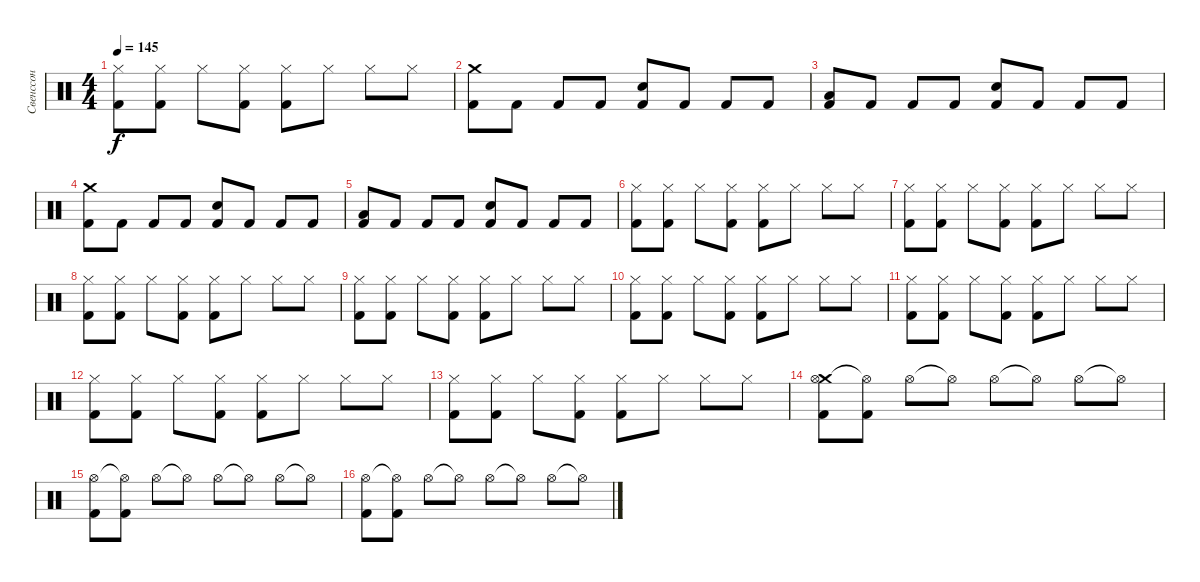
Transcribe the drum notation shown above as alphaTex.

\track ("Свенссон" "Свенссон") {instrument percussion}
\staff {score}
\articulation defaults
\ts (4 4)
\tempo 145
\clef neutral
\ks c
("Hi-Hat (closed)" "Kick (hit) 2").8{dy f} ("Hi-Hat (closed)" "Kick (hit) 2").8 "Hi-Hat (closed)".8 ("Hi-Hat (closed)" "Kick (hit) 2").8 ("Hi-Hat (closed)" "Kick (hit) 2").8 "Hi-Hat (closed)".8 "Hi-Hat (closed)".8 "Hi-Hat (closed)".8 |
("Crash medium (hit)" "Kick (hit) 2").8 "Kick (hit) 2".8 "Kick (hit) 2".8 "Kick (hit) 2".8 ("Snare (hit) 2" "Kick (hit) 2").8 "Kick (hit) 2".8 "Kick (hit) 2".8 "Kick (hit) 2".8 |
("Low Floor Tom (hit)" "Kick (hit) 2").8 "Kick (hit) 2".8 "Kick (hit) 2".8 "Kick (hit) 2".8 ("Snare (hit) 2" "Kick (hit) 2").8 "Kick (hit) 2".8 "Kick (hit) 2".8 "Kick (hit) 2".8 |
("Crash medium (hit)" "Kick (hit) 2").8 "Kick (hit) 2".8 "Kick (hit) 2".8 "Kick (hit) 2".8 ("Snare (hit) 2" "Kick (hit) 2").8 "Kick (hit) 2".8 "Kick (hit) 2".8 "Kick (hit) 2".8 |
("Low Floor Tom (hit)" "Kick (hit) 2").8 "Kick (hit) 2".8 "Kick (hit) 2".8 "Kick (hit) 2".8 ("Snare (hit) 2" "Kick (hit) 2").8 "Kick (hit) 2".8 "Kick (hit) 2".8 "Kick (hit) 2".8 |
("Hi-Hat (closed)" "Kick (hit) 2").8 ("Hi-Hat (closed)" "Kick (hit) 2").8 "Hi-Hat (closed)".8 ("Hi-Hat (closed)" "Kick (hit) 2").8 ("Hi-Hat (closed)" "Kick (hit) 2").8 "Hi-Hat (closed)".8 "Hi-Hat (closed)".8 "Hi-Hat (closed)".8 |
("Hi-Hat (closed)" "Kick (hit) 2").8 ("Hi-Hat (closed)" "Kick (hit) 2").8 "Hi-Hat (closed)".8 ("Hi-Hat (closed)" "Kick (hit) 2").8 ("Hi-Hat (closed)" "Kick (hit) 2").8 "Hi-Hat (closed)".8 "Hi-Hat (closed)".8 "Hi-Hat (closed)".8 |
("Hi-Hat (closed)" "Kick (hit) 2").8 ("Hi-Hat (closed)" "Kick (hit) 2").8 "Hi-Hat (closed)".8 ("Hi-Hat (closed)" "Kick (hit) 2").8 ("Hi-Hat (closed)" "Kick (hit) 2").8 "Hi-Hat (closed)".8 "Hi-Hat (closed)".8 "Hi-Hat (closed)".8 |
("Hi-Hat (closed)" "Kick (hit) 2").8 ("Hi-Hat (closed)" "Kick (hit) 2").8 "Hi-Hat (closed)".8 ("Hi-Hat (closed)" "Kick (hit) 2").8 ("Hi-Hat (closed)" "Kick (hit) 2").8 "Hi-Hat (closed)".8 "Hi-Hat (closed)".8 "Hi-Hat (closed)".8 |
("Hi-Hat (closed)" "Kick (hit) 2").8 ("Hi-Hat (closed)" "Kick (hit) 2").8 "Hi-Hat (closed)".8 ("Hi-Hat (closed)" "Kick (hit) 2").8 ("Hi-Hat (closed)" "Kick (hit) 2").8 "Hi-Hat (closed)".8 "Hi-Hat (closed)".8 "Hi-Hat (closed)".8 |
("Hi-Hat (closed)" "Kick (hit) 2").8 ("Hi-Hat (closed)" "Kick (hit) 2").8 "Hi-Hat (closed)".8 ("Hi-Hat (closed)" "Kick (hit) 2").8 ("Hi-Hat (closed)" "Kick (hit) 2").8 "Hi-Hat (closed)".8 "Hi-Hat (closed)".8 "Hi-Hat (closed)".8 |
("Hi-Hat (closed)" "Kick (hit) 2").8 ("Hi-Hat (closed)" "Kick (hit) 2").8 "Hi-Hat (closed)".8 ("Hi-Hat (closed)" "Kick (hit) 2").8 ("Hi-Hat (closed)" "Kick (hit) 2").8 "Hi-Hat (closed)".8 "Hi-Hat (closed)".8 "Hi-Hat (closed)".8 |
("Hi-Hat (closed)" "Kick (hit) 2").8 ("Hi-Hat (closed)" "Kick (hit) 2").8 "Hi-Hat (closed)".8 ("Hi-Hat (closed)" "Kick (hit) 2").8 ("Hi-Hat (closed)" "Kick (hit) 2").8 "Hi-Hat (closed)".8 "Hi-Hat (closed)".8 "Hi-Hat (closed)".8 |
("Crash medium (hit)" "Hi-Hat (open)" "Kick (hit) 2").8 ("Hi-Hat (open)"{t} "Kick (hit) 2").8 "Hi-Hat (open)".8 "Hi-Hat (open)"{t}.8 "Hi-Hat (open)".8 "Hi-Hat (open)"{t}.8 "Hi-Hat (open)".8 "Hi-Hat (open)"{t}.8 |
("Hi-Hat (open)" "Kick (hit) 2").8 ("Hi-Hat (open)"{t} "Kick (hit) 2").8 "Hi-Hat (open)".8 "Hi-Hat (open)"{t}.8 "Hi-Hat (open)".8 "Hi-Hat (open)"{t}.8 "Hi-Hat (open)".8 "Hi-Hat (open)"{t}.8 |
("Hi-Hat (open)" "Kick (hit) 2").8 ("Hi-Hat (open)"{t} "Kick (hit) 2").8 "Hi-Hat (open)".8 "Hi-Hat (open)"{t}.8 "Hi-Hat (open)".8 "Hi-Hat (open)"{t}.8 "Hi-Hat (open)".8 "Hi-Hat (open)"{t}.8
